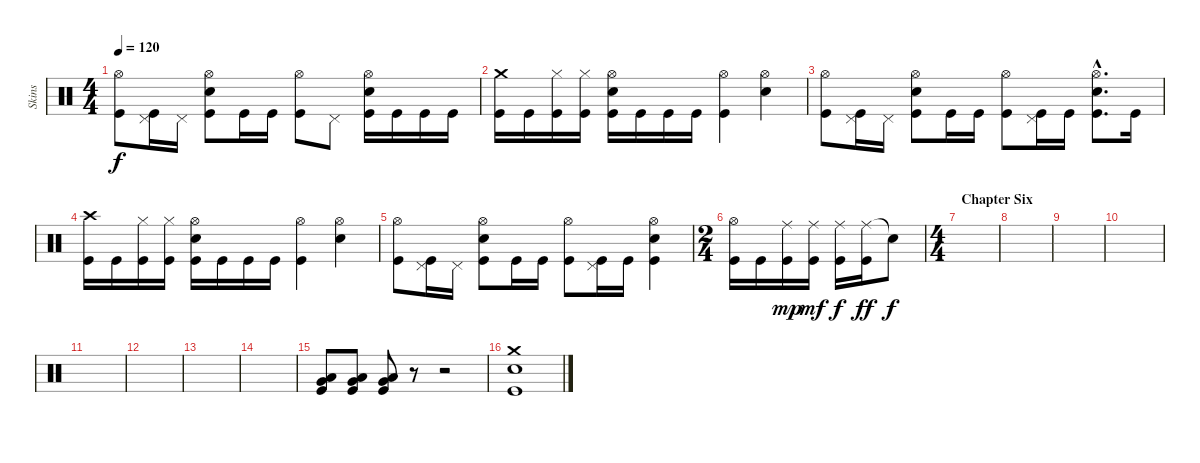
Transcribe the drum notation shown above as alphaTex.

\track ("Skins" "Skins") {instrument percussion}
\staff {score}
\articulation defaults
\ts (4 4)
\tempo 120
\clef neutral
\ks c
("Hi-Hat (open)" "Kick (hit)").8{dy f} ("Pedal Hi-Hat (hit)" "Kick (hit)").16 "Pedal Hi-Hat (hit)".16 ("Hi-Hat (open)" "Electric Snare (hit)" "Kick (hit)").8 "Kick (hit)".16 "Kick (hit)".16 ("Hi-Hat (open)" "Kick (hit)").8 "Pedal Hi-Hat (hit)".8 ("Hi-Hat (open)" "Electric Snare (hit)" "Kick (hit)").16 "Kick (hit)".16 "Kick (hit)".16 "Kick (hit)".16 |
("Crash medium (hit)" "Kick (hit)").16 "Kick (hit)".16 ("Hi-Hat (closed)" "Kick (hit)").16 ("Hi-Hat (closed)" "Kick (hit)").16 ("Hi-Hat (open)" "Electric Snare (hit)" "Kick (hit)").16 "Kick (hit)".16 "Kick (hit)".16 "Kick (hit)".16 ("Hi-Hat (open)" "Kick (hit)").4 ("Hi-Hat (open)" "Electric Snare (hit)").4 |
("Hi-Hat (open)" "Kick (hit)").8 ("Pedal Hi-Hat (hit)" "Kick (hit)").16 "Pedal Hi-Hat (hit)".16 ("Hi-Hat (open)" "Electric Snare (hit)" "Kick (hit)").8 "Kick (hit)".16 "Kick (hit)".16 ("Hi-Hat (open)" "Kick (hit)").8 ("Pedal Hi-Hat (hit)" "Kick (hit)").16 "Kick (hit)".16 ("Hi-Hat (open)"{hac} "Electric Snare (hit)"{hac} "Kick (hit)"{hac}).8{d} "Kick (hit)".16 |
("Crash high (hit)" "Kick (hit)").16 "Kick (hit)".16 ("Hi-Hat (closed)" "Kick (hit)").16 ("Hi-Hat (closed)" "Kick (hit)").16 ("Hi-Hat (open)" "Electric Snare (hit)" "Kick (hit)").16 "Kick (hit)".16 "Kick (hit)".16 "Kick (hit)".16 ("Hi-Hat (open)" "Kick (hit)").4 ("Hi-Hat (open)" "Electric Snare (hit)").4 |
("Hi-Hat (open)" "Kick (hit)").8 ("Pedal Hi-Hat (hit)" "Kick (hit)").16 "Pedal Hi-Hat (hit)".16 ("Hi-Hat (open)" "Electric Snare (hit)" "Kick (hit)").8 "Kick (hit)".16 "Kick (hit)".16 ("Hi-Hat (open)" "Kick (hit)").8 ("Pedal Hi-Hat (hit)" "Kick (hit)").16 "Kick (hit)".16 ("Hi-Hat (open)" "Electric Snare (hit)" "Kick (hit)").4 |
\ts (2 4)
("Hi-Hat (open)" "Kick (hit)").16 "Kick (hit)".16 ("Ride (middle)" "Kick (hit)").16{dy mp} ("Ride (middle)" "Kick (hit)").16{dy mf} ("Ride (middle)" "Kick (hit)").16{dy f} ("Ride (middle)" "Kick (hit)").16{dy ff} "Snare (hit)"{t}.8{dy f} |
\ts (4 4)
\section ("" "Chapter Six")
|
|
|
|
|
|
|
|
("Very Low Tom (hit)" "Low Floor Tom (hit)" "Kick (hit)").8 ("Very Low Tom (hit)" "Low Floor Tom (hit)" "Kick (hit)").8 ("Very Low Tom (hit)" "Low Floor Tom (hit)" "Kick (hit)").8 r.8 r.2 |
("Crash medium (hit)" "Electric Snare (hit)" "Kick (hit)").1
